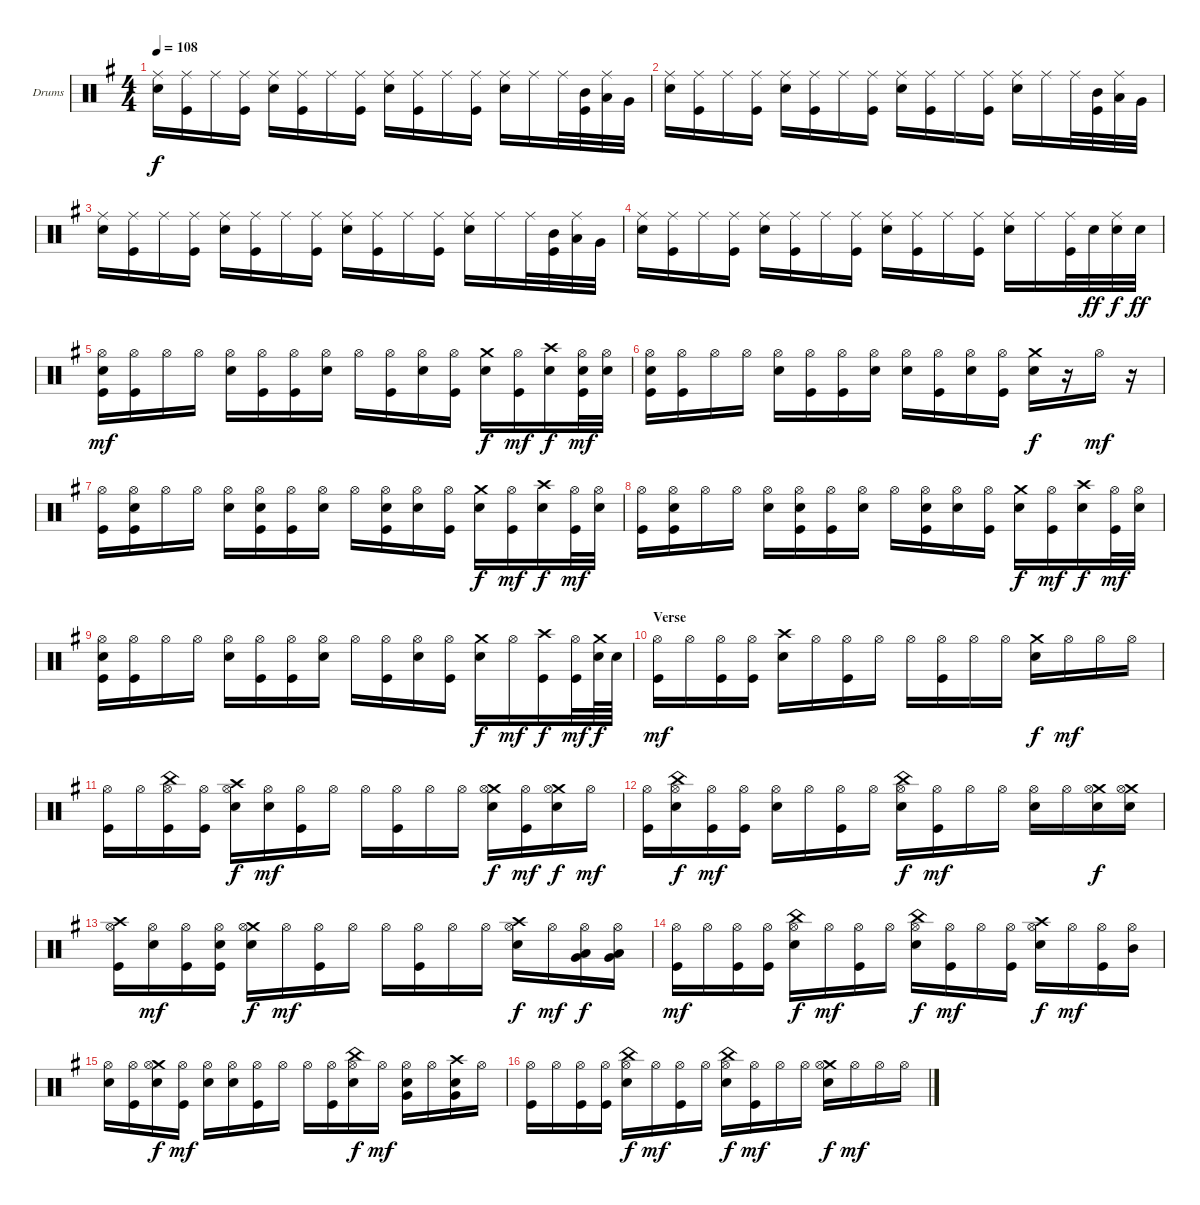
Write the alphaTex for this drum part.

\defaultSystemsLayout 4
\bracketExtendMode groupsimilarinstruments
\firstSystemTrackNameOrientation horizontal
\otherSystemsTrackNameOrientation horizontal
\track ("Drum" "Drums") {instrument percussion}
\staff {score}
\articulation defaults
\ts (4 4)
\tempo 108
\clef neutral
\scale
1.04288
\ks g
("Ride (middle)" "Snare (hit) 2").16{dy f} ("Ride (middle)" "Kick (hit)").16 "Ride (middle)".16 ("Ride (middle)" "Kick (hit)").16 ("Ride (middle)" "Snare (hit) 2").16 ("Ride (middle)" "Kick (hit)").16 "Ride (middle)".16 ("Ride (middle)" "Kick (hit)").16 ("Ride (middle)" "Snare (hit) 2").16 ("Ride (middle)" "Kick (hit)").16 "Ride (middle)".16 ("Ride (middle)" "Kick (hit)").16 ("Ride (middle)" "Snare (hit) 2").16 "Ride (middle)".16 "Ride (middle)".32 ("Mid Tom (hit)" "Kick (hit)").32 ("Low Tom (hit)" "Ride (middle)").32 "Very Low Tom (hit)".32 |
\scale
0.957125 ("Ride (middle)" "Snare (hit) 2").16 ("Ride (middle)" "Kick (hit)").16 "Ride (middle)".16 ("Ride (middle)" "Kick (hit)").16 ("Ride (middle)" "Snare (hit) 2").16 ("Ride (middle)" "Kick (hit)").16 "Ride (middle)".16 ("Ride (middle)" "Kick (hit)").16 ("Ride (middle)" "Snare (hit) 2").16 ("Ride (middle)" "Kick (hit)").16 "Ride (middle)".16 ("Ride (middle)" "Kick (hit)").16 ("Ride (middle)" "Snare (hit) 2").16 "Ride (middle)".16 "Ride (middle)".32 ("Mid Tom (hit)" "Kick (hit)").32 ("Low Tom (hit)" "Ride (middle)").32 "Very Low Tom (hit)".32 |
\scale
1.04288 ("Ride (middle)" "Snare (hit) 2").16 ("Ride (middle)" "Kick (hit)").16 "Ride (middle)".16 ("Ride (middle)" "Kick (hit)").16 ("Ride (middle)" "Snare (hit) 2").16 ("Ride (middle)" "Kick (hit)").16 "Ride (middle)".16 ("Ride (middle)" "Kick (hit)").16 ("Ride (middle)" "Snare (hit) 2").16 ("Ride (middle)" "Kick (hit)").16 "Ride (middle)".16 ("Ride (middle)" "Kick (hit)").16 ("Ride (middle)" "Snare (hit) 2").16 "Ride (middle)".16 "Ride (middle)".32 ("Mid Tom (hit)" "Kick (hit)").32 ("Low Tom (hit)" "Ride (middle)").32 "Very Low Tom (hit)".32 |
\scale
0.957125 ("Ride (middle)" "Snare (hit) 2").16 ("Ride (middle)" "Kick (hit)").16 "Ride (middle)".16 ("Ride (middle)" "Kick (hit)").16 ("Ride (middle)" "Snare (hit) 2").16 ("Ride (middle)" "Kick (hit)").16 "Ride (middle)".16 ("Ride (middle)" "Kick (hit)").16 ("Ride (middle)" "Snare (hit) 2").16 ("Ride (middle)" "Kick (hit)").16 "Ride (middle)".16 ("Ride (middle)" "Kick (hit)").16 ("Ride (middle)" "Snare (hit) 2").16 "Ride (middle)".16 ("Ride (middle)" "Kick (hit)").32 "Snare (hit) 2".32{dy ff} ("Ride (middle)" "Snare (hit) 2").32{dy f} "Snare (hit) 2".32{dy ff} |
\scale
1.04288 ("Hi-Hat (open)" "Snare (hit) 2" "Kick (hit)").16{dy mf} ("Hi-Hat (open)" "Kick (hit)").16 "Hi-Hat (open)".16 "Hi-Hat (open)".16 ("Hi-Hat (open)" "Snare (hit) 2").16 ("Hi-Hat (open)" "Kick (hit)").16 ("Hi-Hat (open)" "Kick (hit)").16 ("Hi-Hat (open)" "Snare (hit) 2").16 "Hi-Hat (open)".16 ("Hi-Hat (open)" "Kick (hit)").16 ("Hi-Hat (open)" "Snare (hit) 2").16 ("Hi-Hat (open)" "Kick (hit)").16 ("Crash medium (hit)" "Snare (hit) 2").16{dy f} ("Hi-Hat (open)" "Kick (hit)").16{dy mf} ("Crash high (hit)" "Snare (hit) 2").16{dy f} ("Hi-Hat (open)" "Snare (hit) 2" "Kick (hit)").32{dy mf} ("Hi-Hat (open)" "Snare (hit) 2").32 |
\scale
0.957125 ("Hi-Hat (open)" "Snare (hit) 2" "Kick (hit)").16 ("Hi-Hat (open)" "Kick (hit)").16 "Hi-Hat (open)".16 "Hi-Hat (open)".16 ("Hi-Hat (open)" "Snare (hit) 2").16 ("Hi-Hat (open)" "Kick (hit)").16 ("Hi-Hat (open)" "Kick (hit)").16 ("Hi-Hat (open)" "Snare (hit) 2").16 ("Hi-Hat (open)" "Snare (hit) 2").16 ("Hi-Hat (open)" "Kick (hit)").16 ("Hi-Hat (open)" "Snare (hit) 2").16 ("Hi-Hat (open)" "Kick (hit)").16 ("Crash medium (hit)" "Snare (hit) 2").16{dy f} r.16 "Hi-Hat (open)".16{dy mf} r.16 |
\scale
1.04288 ("Hi-Hat (open)" "Kick (hit)").16 ("Hi-Hat (open)" "Snare (hit) 2" "Kick (hit)").16 "Hi-Hat (open)".16 "Hi-Hat (open)".16 ("Hi-Hat (open)" "Snare (hit) 2").16 ("Hi-Hat (open)" "Snare (hit) 2" "Kick (hit)").16 ("Hi-Hat (open)" "Kick (hit)").16 ("Hi-Hat (open)" "Snare (hit) 2").16 "Hi-Hat (open)".16 ("Hi-Hat (open)" "Snare (hit) 2" "Kick (hit)").16 ("Hi-Hat (open)" "Snare (hit) 2").16 ("Hi-Hat (open)" "Kick (hit)").16 ("Crash medium (hit)" "Snare (hit) 2").16{dy f} ("Hi-Hat (open)" "Kick (hit)").16{dy mf} ("Crash high (hit)" "Snare (hit) 2").16{dy f} ("Hi-Hat (open)" "Kick (hit)").32{dy mf} ("Hi-Hat (open)" "Snare (hit) 2").32 |
\scale
0.957125 ("Hi-Hat (open)" "Kick (hit)").16 ("Hi-Hat (open)" "Snare (hit) 2" "Kick (hit)").16 "Hi-Hat (open)".16 "Hi-Hat (open)".16 ("Hi-Hat (open)" "Snare (hit) 2").16 ("Hi-Hat (open)" "Snare (hit) 2" "Kick (hit)").16 ("Hi-Hat (open)" "Kick (hit)").16 ("Hi-Hat (open)" "Snare (hit) 2").16 "Hi-Hat (open)".16 ("Hi-Hat (open)" "Snare (hit) 2" "Kick (hit)").16 ("Hi-Hat (open)" "Snare (hit) 2").16 ("Hi-Hat (open)" "Kick (hit)").16 ("Crash medium (hit)" "Snare (hit) 2").16{dy f} ("Hi-Hat (open)" "Kick (hit)").16{dy mf} ("Crash high (hit)" "Snare (hit) 2").16{dy f} ("Hi-Hat (open)" "Kick (hit)").32{dy mf} ("Hi-Hat (open)" "Snare (hit) 2").32 |
\scale
1.04288 ("Hi-Hat (open)" "Snare (hit) 2" "Kick (hit)").16 ("Hi-Hat (open)" "Kick (hit)").16 "Hi-Hat (open)".16 "Hi-Hat (open)".16 ("Hi-Hat (open)" "Snare (hit) 2").16 ("Hi-Hat (open)" "Kick (hit)").16 ("Hi-Hat (open)" "Kick (hit)").16 ("Hi-Hat (open)" "Snare (hit) 2").16 "Hi-Hat (open)".16 ("Hi-Hat (open)" "Kick (hit)").16 ("Hi-Hat (open)" "Snare (hit) 2").16 ("Hi-Hat (open)" "Kick (hit)").16 ("Crash medium (hit)" "Snare (hit) 2").16{dy f} "Hi-Hat (open)".16{dy mf} ("Crash high (hit)" "Kick (hit)").16{dy f} ("Hi-Hat (open)" "Kick (hit)").32{dy mf} ("Crash medium (hit)" "Snare (hit) 2").64{dy f} "Snare (hit) 2".64 |
\section ("" "Verse")
\scale
0.957125 ("Hi-Hat (open)" "Kick (hit)").16{dy mf} "Hi-Hat (open)".16 ("Hi-Hat (open)" "Kick (hit)").16 ("Hi-Hat (open)" "Kick (hit)").16 ("Crash high (hit)" "Snare (hit) 2").16 "Hi-Hat (open)".16 ("Hi-Hat (open)" "Kick (hit)").16 "Hi-Hat (open)".16 "Hi-Hat (open)".16 ("Hi-Hat (open)" "Kick (hit)").16 "Hi-Hat (open)".16 "Hi-Hat (open)".16 ("Crash medium (hit)" "Snare (hit) 2").16{dy f} "Hi-Hat (open)".16{dy mf} "Hi-Hat (open)".16 "Hi-Hat (open)".16 |
\scale
1.04288 ("Hi-Hat (open)" "Kick (hit)").16 "Hi-Hat (open)".16 ("China (hit)" "Hi-Hat (open)" "Kick (hit)").16 ("Hi-Hat (open)" "Kick (hit)").16 ("Crash high (hit)" "Hi-Hat (open)" "Snare (hit) 2").16{dy f} ("Hi-Hat (open)" "Snare (hit) 2").16{dy mf} ("Hi-Hat (open)" "Kick (hit)").16 "Hi-Hat (open)".16 "Hi-Hat (open)".16 ("Hi-Hat (open)" "Kick (hit)").16 "Hi-Hat (open)".16 "Hi-Hat (open)".16 ("Crash medium (hit)" "Hi-Hat (open)" "Snare (hit) 2").16{dy f} ("Hi-Hat (open)" "Kick (hit)").16{dy mf} ("Crash medium (hit)" "Hi-Hat (open)" "Snare (hit) 2").16{dy f} "Hi-Hat (open)".16{dy mf} |
\scale
0.957125 ("Hi-Hat (open)" "Kick (hit)").16 ("China (hit)" "Hi-Hat (open)" "Snare (hit) 2").16{dy f} ("Hi-Hat (open)" "Kick (hit)").16{dy mf} ("Hi-Hat (open)" "Kick (hit)").16 ("Hi-Hat (open)" "Snare (hit) 2").16 "Hi-Hat (open)".16 ("Hi-Hat (open)" "Kick (hit)").16 "Hi-Hat (open)".16 ("China (hit)" "Hi-Hat (open)" "Snare (hit) 2").16{dy f} ("Hi-Hat (open)" "Kick (hit)").16{dy mf} "Hi-Hat (open)".16 "Hi-Hat (open)".16 ("Hi-Hat (open)" "Snare (hit) 2").16 "Hi-Hat (open)".16 ("Crash medium (hit)" "Hi-Hat (open)" "Snare (hit) 2").16{dy f} ("Crash medium (hit)" "Hi-Hat (open)" "Snare (hit) 2").16 |
\scale
1.04288 ("Crash high (hit)" "Hi-Hat (open)" "Kick (hit)").16 ("Hi-Hat (open)" "Snare (hit) 2").16{dy mf} ("Hi-Hat (open)" "Kick (hit)").16 ("Hi-Hat (open)" "Snare (hit) 2" "Kick (hit)").16 ("Crash medium (hit)" "Hi-Hat (open)" "Snare (hit) 2").16{dy f} "Hi-Hat (open)".16{dy mf} ("Hi-Hat (open)" "Kick (hit)").16 "Hi-Hat (open)".16 "Hi-Hat (open)".16 ("Hi-Hat (open)" "Kick (hit)").16 "Hi-Hat (open)".16 "Hi-Hat (open)".16 ("Crash high (hit)" "Hi-Hat (open)" "Snare (hit) 2").16{dy f} "Hi-Hat (open)".16{dy mf} ("Low Tom (hit)" "Hi-Hat (open)" "Very Low Tom (hit)").16{dy f} ("Low Tom (hit)" "Hi-Hat (open)" "Very Low Tom (hit)").16 |
\scale
0.957125 ("Hi-Hat (open)" "Kick (hit)").16{dy mf} "Hi-Hat (open)".16 ("Hi-Hat (open)" "Kick (hit)").16 ("Hi-Hat (open)" "Kick (hit)").16 ("China (hit)" "Hi-Hat (open)" "Snare (hit) 2").16{dy f} "Hi-Hat (open)".16{dy mf} ("Hi-Hat (open)" "Kick (hit)").16 "Hi-Hat (open)".16 ("China (hit)" "Hi-Hat (open)" "Snare (hit) 2").16{dy f} ("Hi-Hat (open)" "Kick (hit)").16{dy mf} "Hi-Hat (open)".16 ("Hi-Hat (open)" "Kick (hit)").16 ("Crash high (hit)" "Hi-Hat (open)" "Snare (hit) 2").16{dy f} "Hi-Hat (open)".16{dy mf} ("Hi-Hat (open)" "Kick (hit)").16 ("Hi-Hat (open)" "Mid Tom (hit)").16 |
\scale
1.04288 ("Hi-Hat (open)" "Snare (hit) 2").16 ("Hi-Hat (open)" "Kick (hit)").16 ("Crash medium (hit)" "Hi-Hat (open)" "Snare (hit) 2").16{dy f} ("Hi-Hat (open)" "Kick (hit)").16{dy mf} ("Hi-Hat (open)" "Snare (hit) 2").16 ("Hi-Hat (open)" "Snare (hit) 2").16 ("Hi-Hat (open)" "Kick (hit)").16 "Hi-Hat (open)".16 "Hi-Hat (open)".16 ("Hi-Hat (open)" "Kick (hit)").16 ("China (hit)" "Hi-Hat (open)" "Snare (hit) 2").16{dy f} "Hi-Hat (open)".16{dy mf} ("Hi-Hat (open)" "Very Low Tom (hit)" "Snare (hit) 2").16 "Hi-Hat (open)".16 ("Crash high (hit)" "Very Low Tom (hit)" "Snare (hit) 2").16 "Hi-Hat (open)".16 |
\scale
0.957125 ("Hi-Hat (open)" "Kick (hit)").16 "Hi-Hat (open)".16 ("Hi-Hat (open)" "Kick (hit)").16 ("Hi-Hat (open)" "Kick (hit)").16 ("China (hit)" "Hi-Hat (open)" "Snare (hit) 2").16{dy f} "Hi-Hat (open)".16{dy mf} ("Hi-Hat (open)" "Kick (hit)").16 "Hi-Hat (open)".16 ("China (hit)" "Hi-Hat (open)" "Snare (hit) 2").16{dy f} ("Hi-Hat (open)" "Kick (hit)").16{dy mf} "Hi-Hat (open)".16 "Hi-Hat (open)".16 ("Crash medium (hit)" "Hi-Hat (open)" "Snare (hit) 2").16{dy f} "Hi-Hat (open)".16{dy mf} "Hi-Hat (open)".16 "Hi-Hat (open)".16
